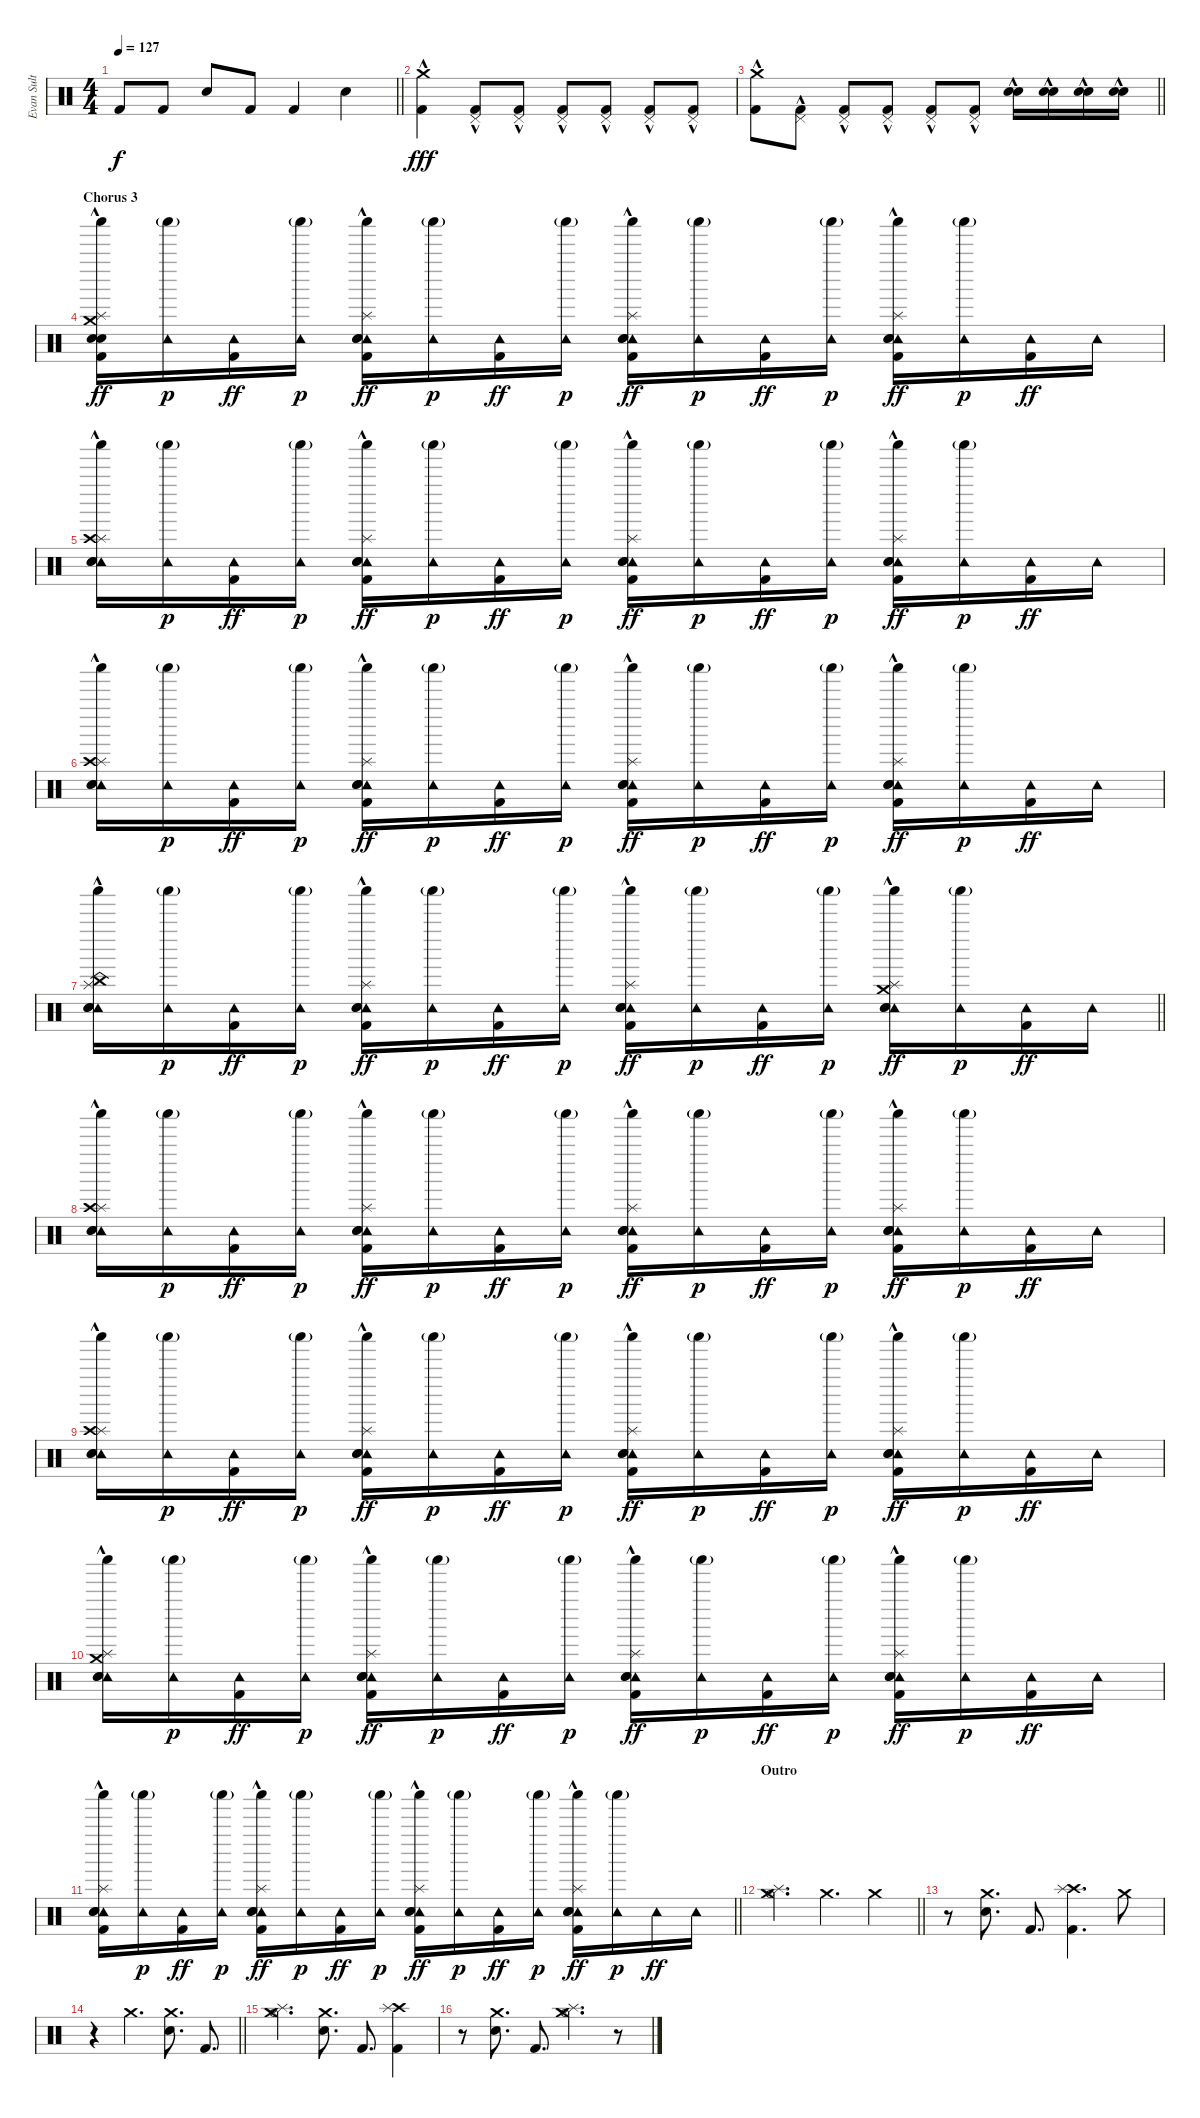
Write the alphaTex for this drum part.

\track ("Evan Sult" "Evan Sult") {instrument percussion}
\staff {score}
\articulation defaults
\ts (4 4)
\tempo 127
\clef neutral
\barLineRight lightlight
\ks c "Kick (hit) 2".8{dy f} "Kick (hit) 2".8 "Electric Snare (hit)".8 "Kick (hit) 2".8 "Kick (hit) 2".4 "Electric Snare (hit)".4
|
("Crash medium (hit)"{hac} "Kick (hit) 2"{hac}).4{dy fff} ("Pedal Hi-Hat (hit)"{hac} "Kick (hit) 2"{hac}).8 ("Pedal Hi-Hat (hit)"{hac} "Kick (hit) 2"{hac}).8 ("Pedal Hi-Hat (hit)"{hac} "Kick (hit) 2"{hac}).8 ("Pedal Hi-Hat (hit)"{hac} "Kick (hit) 2"{hac}).8 ("Pedal Hi-Hat (hit)"{hac} "Kick (hit) 2"{hac}).8 ("Pedal Hi-Hat (hit)"{hac} "Kick (hit) 2"{hac}).8 |
\barLineRight lightlight
("Crash medium (hit)"{hac} "Kick (hit) 2"{hac}).8 ("Pedal Hi-Hat (hit)"{hac} "Kick (hit) 2"{hac}).8 ("Pedal Hi-Hat (hit)"{hac} "Kick (hit) 2"{hac}).8 ("Pedal Hi-Hat (hit)"{hac} "Kick (hit) 2"{hac}).8 ("Pedal Hi-Hat (hit)"{hac} "Kick (hit) 2"{hac}).8 ("Pedal Hi-Hat (hit)"{hac} "Kick (hit) 2"{hac}).8 ("Snare (hit) 2"{hac} "Electric Snare (hit)"{hac}).16 ("Snare (hit) 2"{hac} "Electric Snare (hit)"{hac}).16 ("Snare (hit) 2"{hac} "Electric Snare (hit)"{hac}).16 ("Snare (hit) 2"{hac} "Electric Snare (hit)"{hac}).16 |
\section ("" "Chorus 3")
("Crash medium (hit)" "Splash (hit)"{hac} "Electric Snare (hit)"{hac} "Kick (hit) 2"{hac} "Snare (hit) 2"{hac} "Shaker (hit)").16{dy ff} ("Tambourine (hit)" "Shaker (hit)"{g}).16{dy p} ("Tambourine (hit)" "Kick (hit) 2").16{dy ff} ("Tambourine (hit)" "Shaker (hit)"{g}).16{dy p} ("Tambourine (hit)" "Splash (hit)"{hac} "Electric Snare (hit)"{hac} "Kick (hit) 2"{hac} "Snare (hit) 2"{hac} "Shaker (hit)").16{dy ff} ("Tambourine (hit)" "Shaker (hit)"{g}).16{dy p} ("Tambourine (hit)" "Kick (hit) 2").16{dy ff} ("Tambourine (hit)" "Shaker (hit)"{g}).16{dy p} ("Tambourine (hit)" "Splash (hit)"{hac} "Electric Snare (hit)"{hac} "Kick (hit) 2"{hac} "Snare (hit) 2"{hac} "Shaker (hit)").16{dy ff} ("Tambourine (hit)" "Shaker (hit)"{g}).16{dy p} ("Tambourine (hit)" "Kick (hit) 2").16{dy ff} ("Tambourine (hit)" "Shaker (hit)"{g}).16{dy p} ("Tambourine (hit)" "Splash (hit)"{hac} "Electric Snare (hit)"{hac} "Kick (hit) 2"{hac} "Snare (hit) 2"{hac} "Shaker (hit)").16{dy ff} ("Tambourine (hit)" "Shaker (hit)"{g}).16{dy p} ("Tambourine (hit)" "Kick (hit) 2").16{dy ff} "Tambourine (hit)".16 |
("Tambourine (hit)" "Splash (hit)"{hac} "Electric Snare (hit)"{hac} "Crash high (hit)"{hac} "Snare (hit) 2"{hac} "Shaker (hit)").16 ("Tambourine (hit)" "Shaker (hit)"{g}).16{dy p} ("Tambourine (hit)" "Kick (hit) 2").16{dy ff} ("Tambourine (hit)" "Shaker (hit)"{g}).16{dy p} ("Tambourine (hit)" "Splash (hit)"{hac} "Electric Snare (hit)"{hac} "Kick (hit) 2"{hac} "Snare (hit) 2"{hac} "Shaker (hit)").16{dy ff} ("Tambourine (hit)" "Shaker (hit)"{g}).16{dy p} ("Tambourine (hit)" "Kick (hit) 2").16{dy ff} ("Tambourine (hit)" "Shaker (hit)"{g}).16{dy p} ("Tambourine (hit)" "Splash (hit)"{hac} "Electric Snare (hit)"{hac} "Kick (hit) 2"{hac} "Snare (hit) 2"{hac} "Shaker (hit)").16{dy ff} ("Tambourine (hit)" "Shaker (hit)"{g}).16{dy p} ("Tambourine (hit)" "Kick (hit) 2").16{dy ff} ("Tambourine (hit)" "Shaker (hit)"{g}).16{dy p} ("Tambourine (hit)" "Splash (hit)"{hac} "Electric Snare (hit)"{hac} "Kick (hit) 2"{hac} "Snare (hit) 2"{hac} "Shaker (hit)").16{dy ff} ("Tambourine (hit)" "Shaker (hit)"{g}).16{dy p} ("Tambourine (hit)" "Kick (hit) 2").16{dy ff} "Tambourine (hit)".16 |
("Tambourine (hit)" "Splash (hit)"{hac} "Electric Snare (hit)"{hac} "Crash high (hit)"{hac} "Snare (hit) 2"{hac} "Shaker (hit)").16 ("Tambourine (hit)" "Shaker (hit)"{g}).16{dy p} ("Tambourine (hit)" "Kick (hit) 2").16{dy ff} ("Tambourine (hit)" "Shaker (hit)"{g}).16{dy p} ("Tambourine (hit)" "Splash (hit)"{hac} "Electric Snare (hit)"{hac} "Kick (hit) 2"{hac} "Snare (hit) 2"{hac} "Shaker (hit)").16{dy ff} ("Tambourine (hit)" "Shaker (hit)"{g}).16{dy p} ("Tambourine (hit)" "Kick (hit) 2").16{dy ff} ("Tambourine (hit)" "Shaker (hit)"{g}).16{dy p} ("Tambourine (hit)" "Splash (hit)"{hac} "Electric Snare (hit)"{hac} "Kick (hit) 2"{hac} "Snare (hit) 2"{hac} "Shaker (hit)").16{dy ff} ("Tambourine (hit)" "Shaker (hit)"{g}).16{dy p} ("Tambourine (hit)" "Kick (hit) 2").16{dy ff} ("Tambourine (hit)" "Shaker (hit)"{g}).16{dy p} ("Tambourine (hit)" "Splash (hit)"{hac} "Electric Snare (hit)"{hac} "Kick (hit) 2"{hac} "Snare (hit) 2"{hac} "Shaker (hit)").16{dy ff} ("Tambourine (hit)" "Shaker (hit)"{g}).16{dy p} ("Tambourine (hit)" "Kick (hit) 2").16{dy ff} "Tambourine (hit)".16 |
\barLineRight lightlight
("Tambourine (hit)" "Splash (hit)"{hac} "Electric Snare (hit)"{hac} "China (hit)"{hac} "Snare (hit) 2"{hac} "Shaker (hit)").16 ("Tambourine (hit)" "Shaker (hit)"{g}).16{dy p} ("Tambourine (hit)" "Kick (hit) 2").16{dy ff} ("Tambourine (hit)" "Shaker (hit)"{g}).16{dy p} ("Tambourine (hit)" "Splash (hit)"{hac} "Electric Snare (hit)"{hac} "Kick (hit) 2"{hac} "Snare (hit) 2"{hac} "Shaker (hit)").16{dy ff} ("Tambourine (hit)" "Shaker (hit)"{g}).16{dy p} ("Tambourine (hit)" "Kick (hit) 2").16{dy ff} ("Tambourine (hit)" "Shaker (hit)"{g}).16{dy p} ("Tambourine (hit)" "Splash (hit)"{hac} "Electric Snare (hit)"{hac} "Kick (hit) 2"{hac} "Snare (hit) 2"{hac} "Shaker (hit)").16{dy ff} ("Tambourine (hit)" "Shaker (hit)"{g}).16{dy p} ("Tambourine (hit)" "Kick (hit) 2").16{dy ff} ("Tambourine (hit)" "Shaker (hit)"{g}).16{dy p} ("Tambourine (hit)" "Splash (hit)"{hac} "Electric Snare (hit)"{hac} "Crash medium (hit)"{hac} "Snare (hit) 2"{hac} "Shaker (hit)").16{dy ff} ("Tambourine (hit)" "Shaker (hit)"{g}).16{dy p} ("Tambourine (hit)" "Kick (hit) 2").16{dy ff} "Tambourine (hit)".16 |
("Tambourine (hit)" "Splash (hit)"{hac} "Electric Snare (hit)"{hac} "Crash high (hit)"{hac} "Snare (hit) 2"{hac} "Shaker (hit)").16 ("Tambourine (hit)" "Shaker (hit)"{g}).16{dy p} ("Tambourine (hit)" "Kick (hit) 2").16{dy ff} ("Tambourine (hit)" "Shaker (hit)"{g}).16{dy p} ("Tambourine (hit)" "Splash (hit)"{hac} "Electric Snare (hit)"{hac} "Kick (hit) 2"{hac} "Snare (hit) 2"{hac} "Shaker (hit)").16{dy ff} ("Tambourine (hit)" "Shaker (hit)"{g}).16{dy p} ("Tambourine (hit)" "Kick (hit) 2").16{dy ff} ("Tambourine (hit)" "Shaker (hit)"{g}).16{dy p} ("Tambourine (hit)" "Splash (hit)"{hac} "Electric Snare (hit)"{hac} "Kick (hit) 2"{hac} "Snare (hit) 2"{hac} "Shaker (hit)").16{dy ff} ("Tambourine (hit)" "Shaker (hit)"{g}).16{dy p} ("Tambourine (hit)" "Kick (hit) 2").16{dy ff} ("Tambourine (hit)" "Shaker (hit)"{g}).16{dy p} ("Tambourine (hit)" "Splash (hit)"{hac} "Electric Snare (hit)"{hac} "Kick (hit) 2"{hac} "Snare (hit) 2"{hac} "Shaker (hit)").16{dy ff} ("Tambourine (hit)" "Shaker (hit)"{g}).16{dy p} ("Tambourine (hit)" "Kick (hit) 2").16{dy ff} "Tambourine (hit)".16 |
("Tambourine (hit)" "Splash (hit)"{hac} "Electric Snare (hit)"{hac} "Crash high (hit)"{hac} "Snare (hit) 2"{hac} "Shaker (hit)").16 ("Tambourine (hit)" "Shaker (hit)"{g}).16{dy p} ("Tambourine (hit)" "Kick (hit) 2").16{dy ff} ("Tambourine (hit)" "Shaker (hit)"{g}).16{dy p} ("Tambourine (hit)" "Splash (hit)"{hac} "Electric Snare (hit)"{hac} "Kick (hit) 2"{hac} "Snare (hit) 2"{hac} "Shaker (hit)").16{dy ff} ("Tambourine (hit)" "Shaker (hit)"{g}).16{dy p} ("Tambourine (hit)" "Kick (hit) 2").16{dy ff} ("Tambourine (hit)" "Shaker (hit)"{g}).16{dy p} ("Tambourine (hit)" "Splash (hit)"{hac} "Electric Snare (hit)"{hac} "Kick (hit) 2"{hac} "Snare (hit) 2"{hac} "Shaker (hit)").16{dy ff} ("Tambourine (hit)" "Shaker (hit)"{g}).16{dy p} ("Tambourine (hit)" "Kick (hit) 2").16{dy ff} ("Tambourine (hit)" "Shaker (hit)"{g}).16{dy p} ("Tambourine (hit)" "Splash (hit)"{hac} "Electric Snare (hit)"{hac} "Kick (hit) 2"{hac} "Snare (hit) 2"{hac} "Shaker (hit)").16{dy ff} ("Tambourine (hit)" "Shaker (hit)"{g}).16{dy p} ("Tambourine (hit)" "Kick (hit) 2").16{dy ff} "Tambourine (hit)".16 |
("Tambourine (hit)" "Splash (hit)"{hac} "Electric Snare (hit)"{hac} "Crash medium (hit)" "Snare (hit) 2"{hac} "Shaker (hit)").16 ("Tambourine (hit)" "Shaker (hit)"{g}).16{dy p} ("Tambourine (hit)" "Kick (hit) 2").16{dy ff} ("Tambourine (hit)" "Shaker (hit)"{g}).16{dy p} ("Tambourine (hit)" "Splash (hit)"{hac} "Electric Snare (hit)"{hac} "Kick (hit) 2"{hac} "Snare (hit) 2"{hac} "Shaker (hit)").16{dy ff} ("Tambourine (hit)" "Shaker (hit)"{g}).16{dy p} ("Tambourine (hit)" "Kick (hit) 2").16{dy ff} ("Tambourine (hit)" "Shaker (hit)"{g}).16{dy p} ("Tambourine (hit)" "Splash (hit)"{hac} "Electric Snare (hit)"{hac} "Kick (hit) 2"{hac} "Snare (hit) 2"{hac} "Shaker (hit)").16{dy ff} ("Tambourine (hit)" "Shaker (hit)"{g}).16{dy p} ("Tambourine (hit)" "Kick (hit) 2").16{dy ff} ("Tambourine (hit)" "Shaker (hit)"{g}).16{dy p} ("Tambourine (hit)" "Splash (hit)"{hac} "Electric Snare (hit)"{hac} "Kick (hit) 2"{hac} "Snare (hit) 2"{hac} "Shaker (hit)").16{dy ff} ("Tambourine (hit)" "Shaker (hit)"{g}).16{dy p} ("Tambourine (hit)" "Kick (hit) 2").16{dy ff} "Tambourine (hit)".16 |
\barLineRight lightlight
("Tambourine (hit)" "Splash (hit)"{hac} "Electric Snare (hit)"{hac} "Kick (hit) 2"{hac} "Snare (hit) 2"{hac} "Shaker (hit)").16 ("Tambourine (hit)" "Shaker (hit)"{g}).16{dy p} ("Tambourine (hit)" "Kick (hit) 2").16{dy ff} ("Tambourine (hit)" "Shaker (hit)"{g}).16{dy p} ("Tambourine (hit)" "Splash (hit)"{hac} "Electric Snare (hit)"{hac} "Kick (hit) 2"{hac} "Snare (hit) 2"{hac} "Shaker (hit)").16{dy ff} ("Tambourine (hit)" "Shaker (hit)"{g}).16{dy p} ("Tambourine (hit)" "Kick (hit) 2").16{dy ff} ("Tambourine (hit)" "Shaker (hit)"{g}).16{dy p} ("Tambourine (hit)" "Splash (hit)"{hac} "Electric Snare (hit)"{hac} "Kick (hit) 2"{hac} "Snare (hit) 2"{hac} "Shaker (hit)").16{dy ff} ("Tambourine (hit)" "Shaker (hit)"{g}).16{dy p} ("Tambourine (hit)" "Kick (hit) 2").16{dy ff} ("Tambourine (hit)" "Shaker (hit)"{g}).16{dy p} ("Tambourine (hit)" "Splash (hit)"{hac} "Electric Snare (hit)"{hac} "Kick (hit) 2"{hac} "Snare (hit) 2"{hac} "Shaker (hit)").16{dy ff} ("Tambourine (hit)" "Shaker (hit)"{g}).16{dy p} "Tambourine (hit)".16{dy ff} "Tambourine (hit)".16 |
\section ("" "Outro")
\barLineRight lightlight
("Hi-Hat (open)" "Splash (hit)" "Crash medium (hit)").4{d} "Crash medium (hit)".4{d} "Crash medium (hit)".4 |
r.8 ("Crash medium (hit)" "Electric Snare (hit)").8{d} "Kick (hit) 2".8{d} ("Crash high (hit)" "Splash (hit)" "Kick (hit) 2").4{d} "Crash medium (hit)".8 |
\barLineRight lightlight
r.4 "Crash medium (hit)".4{d} ("Crash medium (hit)" "Electric Snare (hit)").8{d} "Kick (hit) 2".8{d} |
("Hi-Hat (open)" "Splash (hit)" "Crash medium (hit)").4{d} ("Crash medium (hit)" "Electric Snare (hit)").8{d} "Kick (hit) 2".8{d} ("Crash high (hit)" "Splash (hit)" "Kick (hit) 2").4 |
r.8 ("Crash medium (hit)" "Electric Snare (hit)").8{d} "Kick (hit) 2".8{d} ("Hi-Hat (open)" "Splash (hit)" "Crash medium (hit)").4{d} r.8
